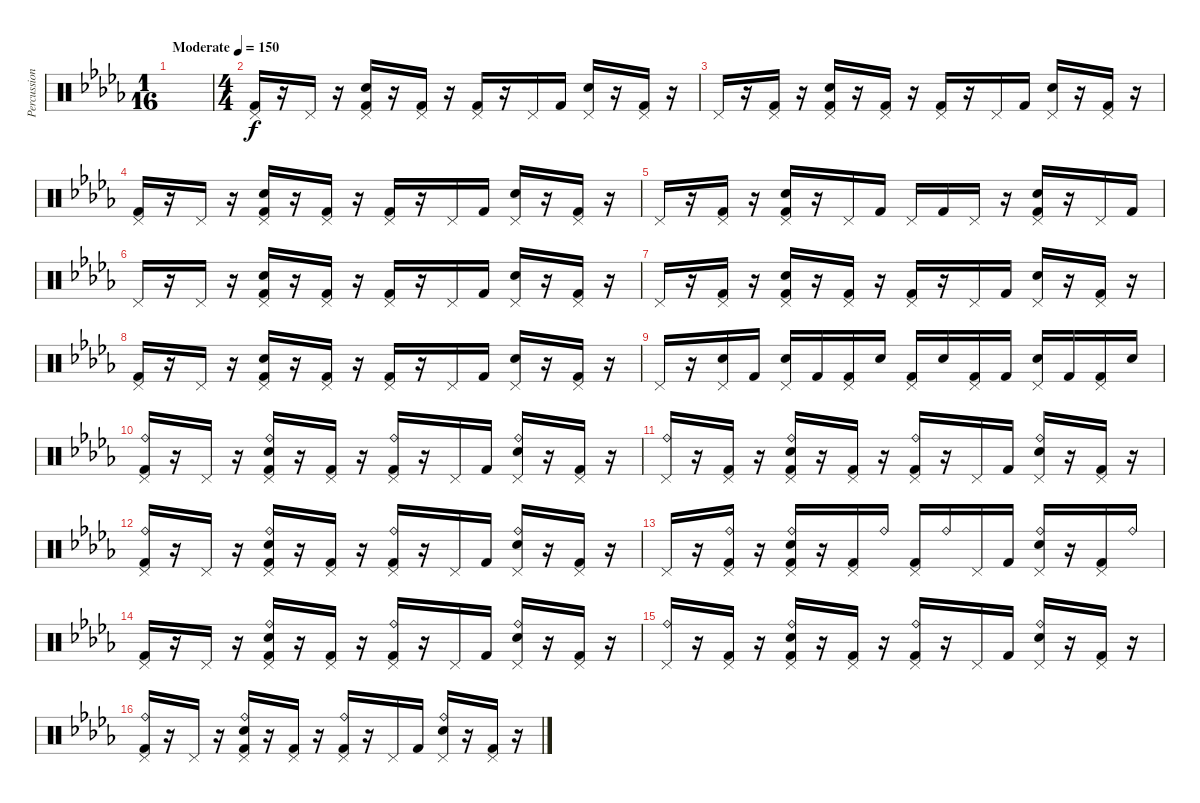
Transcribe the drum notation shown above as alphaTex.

\track ("Percussion" "Percussion") {instrument percussion}
\staff {score}
\articulation defaults
\ts (1 16)
\tempo (150 "Moderate")
\clef neutral
\ks bbminor
|
\ts (4 4)
("Pedal Hi-Hat (hit)" "Kick (hit) 2").16 r.16 "Pedal Hi-Hat (hit)".16 r.16 ("Electric Snare (hit)" "Pedal Hi-Hat (hit)" "Kick (hit) 2").16 r.16 ("Pedal Hi-Hat (hit)" "Kick (hit) 2").16 r.16 ("Pedal Hi-Hat (hit)" "Kick (hit) 2").16 r.16 "Pedal Hi-Hat (hit)".16 "Kick (hit) 2".16 ("Electric Snare (hit)" "Pedal Hi-Hat (hit)").16 r.16 ("Pedal Hi-Hat (hit)" "Kick (hit) 2").16 r.16 |
"Pedal Hi-Hat (hit)".16 r.16 ("Pedal Hi-Hat (hit)" "Kick (hit) 2").16 r.16 ("Electric Snare (hit)" "Pedal Hi-Hat (hit)" "Kick (hit) 2").16 r.16 ("Pedal Hi-Hat (hit)" "Kick (hit) 2").16 r.16 ("Pedal Hi-Hat (hit)" "Kick (hit) 2").16 r.16 "Pedal Hi-Hat (hit)".16 "Kick (hit) 2".16 ("Electric Snare (hit)" "Pedal Hi-Hat (hit)").16 r.16 ("Pedal Hi-Hat (hit)" "Kick (hit) 2").16 r.16 |
("Pedal Hi-Hat (hit)" "Kick (hit) 2").16 r.16 "Pedal Hi-Hat (hit)".16 r.16 ("Electric Snare (hit)" "Pedal Hi-Hat (hit)" "Kick (hit) 2").16 r.16 ("Pedal Hi-Hat (hit)" "Kick (hit) 2").16 r.16 ("Pedal Hi-Hat (hit)" "Kick (hit) 2").16 r.16 "Pedal Hi-Hat (hit)".16 "Kick (hit) 2".16 ("Electric Snare (hit)" "Pedal Hi-Hat (hit)").16 r.16 ("Pedal Hi-Hat (hit)" "Kick (hit) 2").16 r.16 |
"Pedal Hi-Hat (hit)".16 r.16 ("Pedal Hi-Hat (hit)" "Kick (hit) 2").16 r.16 ("Electric Snare (hit)" "Pedal Hi-Hat (hit)" "Kick (hit) 2").16 r.16 "Pedal Hi-Hat (hit)".16 "Kick (hit) 2".16 "Pedal Hi-Hat (hit)".16 "Kick (hit) 2".16 "Pedal Hi-Hat (hit)".16 r.16 ("Electric Snare (hit)" "Pedal Hi-Hat (hit)" "Kick (hit) 2").16 r.16 "Pedal Hi-Hat (hit)".16 "Kick (hit) 2".16 |
"Pedal Hi-Hat (hit)".16 r.16 "Pedal Hi-Hat (hit)".16 r.16 ("Electric Snare (hit)" "Pedal Hi-Hat (hit)" "Kick (hit) 2").16 r.16 ("Pedal Hi-Hat (hit)" "Kick (hit) 2").16 r.16 ("Pedal Hi-Hat (hit)" "Kick (hit) 2").16 r.16 "Pedal Hi-Hat (hit)".16 "Kick (hit) 2".16 ("Electric Snare (hit)" "Pedal Hi-Hat (hit)").16 r.16 ("Pedal Hi-Hat (hit)" "Kick (hit) 2").16 r.16 |
"Pedal Hi-Hat (hit)".16 r.16 ("Pedal Hi-Hat (hit)" "Kick (hit) 2").16 r.16 ("Electric Snare (hit)" "Pedal Hi-Hat (hit)" "Kick (hit) 2").16 r.16 ("Pedal Hi-Hat (hit)" "Kick (hit) 2").16 r.16 ("Pedal Hi-Hat (hit)" "Kick (hit) 2").16 r.16 "Pedal Hi-Hat (hit)".16 "Kick (hit) 2".16 ("Electric Snare (hit)" "Pedal Hi-Hat (hit)").16 r.16 ("Pedal Hi-Hat (hit)" "Kick (hit) 2").16 r.16 |
("Pedal Hi-Hat (hit)" "Kick (hit) 2").16 r.16 "Pedal Hi-Hat (hit)".16 r.16 ("Electric Snare (hit)" "Pedal Hi-Hat (hit)" "Kick (hit) 2").16 r.16 ("Pedal Hi-Hat (hit)" "Kick (hit) 2").16 r.16 ("Pedal Hi-Hat (hit)" "Kick (hit) 2").16 r.16 "Pedal Hi-Hat (hit)".16 "Kick (hit) 2".16 ("Electric Snare (hit)" "Pedal Hi-Hat (hit)").16 r.16 ("Pedal Hi-Hat (hit)" "Kick (hit) 2").16 r.16 |
"Pedal Hi-Hat (hit)".16 r.16 ("Electric Snare (hit)" "Pedal Hi-Hat (hit)").16 "Kick (hit) 2".16 ("Electric Snare (hit)" "Pedal Hi-Hat (hit)").16 "Kick (hit) 2".16 ("Pedal Hi-Hat (hit)" "Kick (hit) 2").16 "Electric Snare (hit)".16 ("Pedal Hi-Hat (hit)" "Kick (hit) 2").16 "Electric Snare (hit)".16 ("Pedal Hi-Hat (hit)" "Kick (hit) 2").16 "Kick (hit) 2".16 ("Electric Snare (hit)" "Pedal Hi-Hat (hit)").16 "Kick (hit) 2".16 ("Pedal Hi-Hat (hit)" "Kick (hit) 2").16 "Electric Snare (hit)".16 |
("Ride (bell)" "Pedal Hi-Hat (hit)" "Kick (hit) 2").16 r.16 "Pedal Hi-Hat (hit)".16 r.16 ("Ride (bell)" "Electric Snare (hit)" "Pedal Hi-Hat (hit)" "Kick (hit) 2").16 r.16 ("Pedal Hi-Hat (hit)" "Kick (hit) 2").16 r.16 ("Ride (bell)" "Pedal Hi-Hat (hit)" "Kick (hit) 2").16 r.16 "Pedal Hi-Hat (hit)".16 "Kick (hit) 2".16 ("Ride (bell)" "Electric Snare (hit)" "Pedal Hi-Hat (hit)").16 r.16 ("Pedal Hi-Hat (hit)" "Kick (hit) 2").16 r.16 |
("Ride (bell)" "Pedal Hi-Hat (hit)").16 r.16 ("Pedal Hi-Hat (hit)" "Kick (hit) 2").16 r.16 ("Ride (bell)" "Electric Snare (hit)" "Pedal Hi-Hat (hit)" "Kick (hit) 2").16 r.16 ("Pedal Hi-Hat (hit)" "Kick (hit) 2").16 r.16 ("Ride (bell)" "Pedal Hi-Hat (hit)" "Kick (hit) 2").16 r.16 "Pedal Hi-Hat (hit)".16 "Kick (hit) 2".16 ("Ride (bell)" "Electric Snare (hit)" "Pedal Hi-Hat (hit)").16 r.16 ("Pedal Hi-Hat (hit)" "Kick (hit) 2").16 r.16 |
("Ride (bell)" "Pedal Hi-Hat (hit)" "Kick (hit) 2").16 r.16 "Pedal Hi-Hat (hit)".16 r.16 ("Ride (bell)" "Electric Snare (hit)" "Pedal Hi-Hat (hit)" "Kick (hit) 2").16 r.16 ("Pedal Hi-Hat (hit)" "Kick (hit) 2").16 r.16 ("Ride (bell)" "Pedal Hi-Hat (hit)" "Kick (hit) 2").16 r.16 "Pedal Hi-Hat (hit)".16 "Kick (hit) 2".16 ("Ride (bell)" "Electric Snare (hit)" "Pedal Hi-Hat (hit)").16 r.16 ("Pedal Hi-Hat (hit)" "Kick (hit) 2").16 r.16 |
"Pedal Hi-Hat (hit)".16 r.16 ("Ride (bell)" "Pedal Hi-Hat (hit)" "Kick (hit) 2").16 r.16 ("Ride (bell)" "Electric Snare (hit)" "Pedal Hi-Hat (hit)" "Kick (hit) 2").16 r.16 ("Pedal Hi-Hat (hit)" "Kick (hit) 2").16 "Ride (bell)".16 ("Pedal Hi-Hat (hit)" "Kick (hit) 2").16 "Ride (bell)".16 "Pedal Hi-Hat (hit)".16 "Kick (hit) 2".16 ("Ride (bell)" "Electric Snare (hit)" "Pedal Hi-Hat (hit)").16 r.16 ("Pedal Hi-Hat (hit)" "Kick (hit) 2").16 "Ride (bell)".16 |
("Pedal Hi-Hat (hit)" "Kick (hit) 2").16 r.16 "Pedal Hi-Hat (hit)".16 r.16 ("Ride (bell)" "Electric Snare (hit)" "Pedal Hi-Hat (hit)" "Kick (hit) 2").16 r.16 ("Pedal Hi-Hat (hit)" "Kick (hit) 2").16 r.16 ("Ride (bell)" "Pedal Hi-Hat (hit)" "Kick (hit) 2").16 r.16 "Pedal Hi-Hat (hit)".16 "Kick (hit) 2".16 ("Ride (bell)" "Electric Snare (hit)" "Pedal Hi-Hat (hit)").16 r.16 ("Pedal Hi-Hat (hit)" "Kick (hit) 2").16 r.16 |
("Ride (bell)" "Pedal Hi-Hat (hit)").16 r.16 ("Pedal Hi-Hat (hit)" "Kick (hit) 2").16 r.16 ("Ride (bell)" "Electric Snare (hit)" "Pedal Hi-Hat (hit)" "Kick (hit) 2").16 r.16 ("Pedal Hi-Hat (hit)" "Kick (hit) 2").16 r.16 ("Ride (bell)" "Pedal Hi-Hat (hit)" "Kick (hit) 2").16 r.16 "Pedal Hi-Hat (hit)".16 "Kick (hit) 2".16 ("Ride (bell)" "Electric Snare (hit)" "Pedal Hi-Hat (hit)").16 r.16 ("Pedal Hi-Hat (hit)" "Kick (hit) 2").16 r.16 |
("Ride (bell)" "Pedal Hi-Hat (hit)" "Kick (hit) 2").16 r.16 "Pedal Hi-Hat (hit)".16 r.16 ("Ride (bell)" "Electric Snare (hit)" "Pedal Hi-Hat (hit)" "Kick (hit) 2").16 r.16 ("Pedal Hi-Hat (hit)" "Kick (hit) 2").16 r.16 ("Ride (bell)" "Pedal Hi-Hat (hit)" "Kick (hit) 2").16 r.16 "Pedal Hi-Hat (hit)".16 "Kick (hit) 2".16 ("Ride (bell)" "Electric Snare (hit)" "Pedal Hi-Hat (hit)").16 r.16 ("Pedal Hi-Hat (hit)" "Kick (hit) 2").16 r.16
